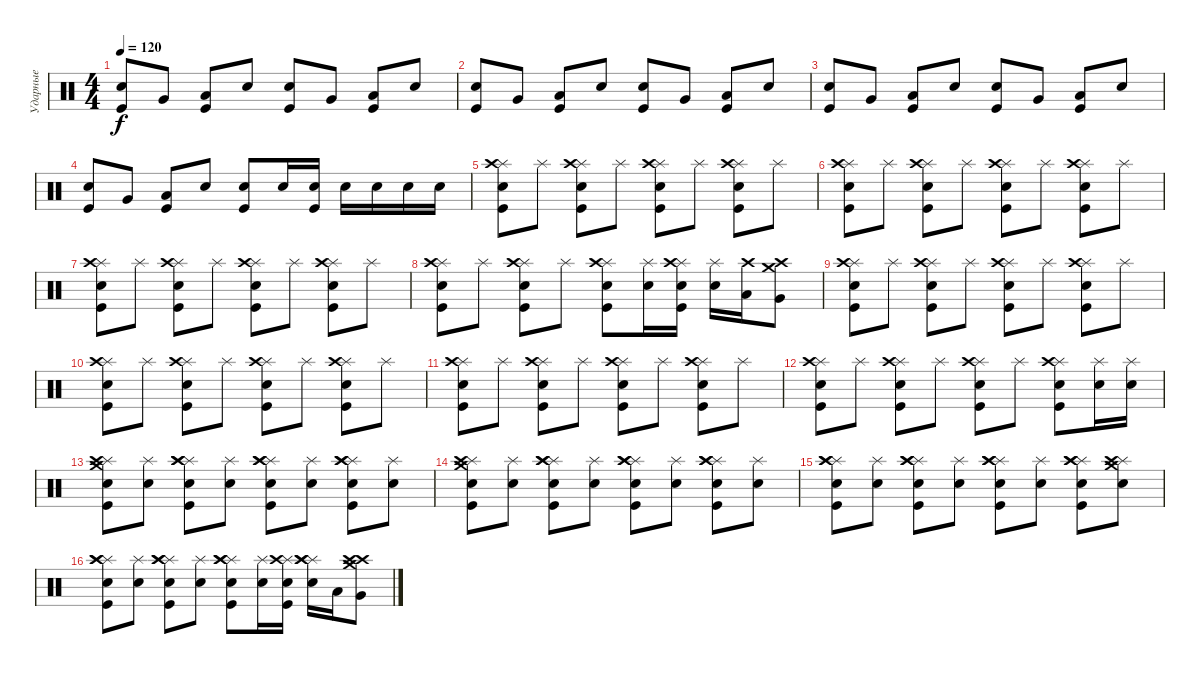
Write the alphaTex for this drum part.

\track ("Ударные" "Ударные") {instrument percussion}
\staff {score}
\articulation defaults
\ts (4 4)
\tempo 120
\clef neutral
\ks c
("Snare (hit) 2" "Kick (hit)").8{dy f} "Very Low Tom (hit)".8 ("Low Floor Tom (hit)" "Kick (hit)").8 "Electric Snare (hit)".8 ("Snare (hit) 2" "Kick (hit)").8 "Very Low Tom (hit)".8 ("Low Floor Tom (hit)" "Kick (hit)").8 "Electric Snare (hit)".8 |
("Snare (hit) 2" "Kick (hit)").8 "Very Low Tom (hit)".8 ("Low Floor Tom (hit)" "Kick (hit)").8 "Electric Snare (hit)".8 ("Snare (hit) 2" "Kick (hit)").8 "Very Low Tom (hit)".8 ("Low Floor Tom (hit)" "Kick (hit)").8 "Electric Snare (hit)".8 |
("Snare (hit) 2" "Kick (hit)").8 "Very Low Tom (hit)".8 ("Low Floor Tom (hit)" "Kick (hit)").8 "Electric Snare (hit)".8 ("Snare (hit) 2" "Kick (hit)").8 "Very Low Tom (hit)".8 ("Low Floor Tom (hit)" "Kick (hit)").8 "Electric Snare (hit)".8 |
("Snare (hit) 2" "Kick (hit)").8 "Very Low Tom (hit)".8 ("Low Floor Tom (hit)" "Kick (hit)").8 "Electric Snare (hit)".8 ("Snare (hit) 2" "Kick (hit)").8 "Snare (hit) 2".16 ("Snare (hit) 2" "Kick (hit)").16 "Snare (hit) 2".16 "Electric Snare (hit)".16 "Electric Snare (hit)".16 "Snare (hit) 2".16 |
("Splash (hit)" "Crash high (hit)" "Electric Snare (hit)" "Kick (hit)").8 "Splash (hit)".8 ("Splash (hit)" "Crash high (hit)" "Electric Snare (hit)" "Kick (hit)").8 "Splash (hit)".8 ("Splash (hit)" "Crash high (hit)" "Electric Snare (hit)" "Kick (hit)").8 "Splash (hit)".8 ("Splash (hit)" "Crash high (hit)" "Electric Snare (hit)" "Kick (hit)").8 "Splash (hit)".8 |
("Splash (hit)" "Crash high (hit)" "Electric Snare (hit)" "Kick (hit)").8 "Splash (hit)".8 ("Splash (hit)" "Crash high (hit)" "Electric Snare (hit)" "Kick (hit)").8 "Splash (hit)".8 ("Splash (hit)" "Crash high (hit)" "Electric Snare (hit)" "Kick (hit)").8 "Splash (hit)".8 ("Splash (hit)" "Crash high (hit)" "Electric Snare (hit)" "Kick (hit)").8 "Splash (hit)".8 |
("Splash (hit)" "Crash high (hit)" "Electric Snare (hit)" "Kick (hit)").8 "Splash (hit)".8 ("Splash (hit)" "Crash high (hit)" "Electric Snare (hit)" "Kick (hit)").8 "Splash (hit)".8 ("Splash (hit)" "Crash high (hit)" "Electric Snare (hit)" "Kick (hit)").8 "Splash (hit)".8 ("Splash (hit)" "Crash high (hit)" "Electric Snare (hit)" "Kick (hit)").8 "Splash (hit)".8 |
("Splash (hit)" "Crash high (hit)" "Electric Snare (hit)" "Kick (hit)").8 "Splash (hit)".8 ("Splash (hit)" "Crash high (hit)" "Electric Snare (hit)" "Kick (hit)").8 "Splash (hit)".8 ("Splash (hit)" "Crash high (hit)" "Electric Snare (hit)" "Kick (hit)").8 ("Splash (hit)" "Snare (hit) 2").16 ("Splash (hit)" "Crash high (hit)" "Electric Snare (hit)" "Kick (hit)").16 ("Splash (hit)" "Electric Snare (hit)").16 ("Crash high (hit)" "Low Floor Tom (hit)").16 ("Crash medium (hit)" "Crash high (hit)" "Very Low Tom (hit)").8 |
("Splash (hit)" "Crash high (hit)" "Electric Snare (hit)" "Kick (hit)").8 "Splash (hit)".8 ("Splash (hit)" "Crash high (hit)" "Electric Snare (hit)" "Kick (hit)").8 "Splash (hit)".8 ("Splash (hit)" "Crash high (hit)" "Electric Snare (hit)" "Kick (hit)").8 "Splash (hit)".8 ("Splash (hit)" "Crash high (hit)" "Electric Snare (hit)" "Kick (hit)").8 "Splash (hit)".8 |
("Splash (hit)" "Crash high (hit)" "Electric Snare (hit)" "Kick (hit)").8 "Splash (hit)".8 ("Splash (hit)" "Crash high (hit)" "Electric Snare (hit)" "Kick (hit)").8 "Splash (hit)".8 ("Splash (hit)" "Crash high (hit)" "Electric Snare (hit)" "Kick (hit)").8 "Splash (hit)".8 ("Splash (hit)" "Crash high (hit)" "Electric Snare (hit)" "Kick (hit)").8 "Splash (hit)".8 |
("Splash (hit)" "Crash high (hit)" "Electric Snare (hit)" "Kick (hit)").8 "Splash (hit)".8 ("Splash (hit)" "Crash high (hit)" "Electric Snare (hit)" "Kick (hit)").8 "Splash (hit)".8 ("Splash (hit)" "Crash high (hit)" "Electric Snare (hit)" "Kick (hit)").8 "Splash (hit)".8 ("Splash (hit)" "Crash high (hit)" "Electric Snare (hit)" "Kick (hit)").8 "Splash (hit)".8 |
("Splash (hit)" "Crash high (hit)" "Electric Snare (hit)" "Kick (hit)").8 "Splash (hit)".8 ("Splash (hit)" "Crash high (hit)" "Electric Snare (hit)" "Kick (hit)").8 "Splash (hit)".8 ("Splash (hit)" "Crash high (hit)" "Electric Snare (hit)" "Kick (hit)").8 "Splash (hit)".8 ("Splash (hit)" "Crash high (hit)" "Electric Snare (hit)" "Kick (hit)").8 ("Splash (hit)" "Snare (hit) 2").16 ("Splash (hit)" "Snare (hit) 2").16 |
("Splash (hit)" "Crash medium (hit)" "Crash high (hit)" "Electric Snare (hit)" "Kick (hit)").8 ("Splash (hit)" "Snare (hit) 2").8 ("Splash (hit)" "Crash high (hit)" "Crash high (hit)" "Electric Snare (hit)" "Kick (hit)").8 ("Splash (hit)" "Snare (hit) 2").8 ("Splash (hit)" "Crash high (hit)" "Crash high (hit)" "Electric Snare (hit)" "Kick (hit)").8 ("Splash (hit)" "Snare (hit) 2").8 ("Splash (hit)" "Crash high (hit)" "Crash high (hit)" "Electric Snare (hit)" "Kick (hit)").8 ("Splash (hit)" "Snare (hit) 2").8 |
("Splash (hit)" "Crash medium (hit)" "Crash high (hit)" "Electric Snare (hit)" "Kick (hit)").8 ("Splash (hit)" "Snare (hit) 2").8 ("Splash (hit)" "Crash high (hit)" "Crash high (hit)" "Electric Snare (hit)" "Kick (hit)").8 ("Splash (hit)" "Snare (hit) 2").8 ("Splash (hit)" "Crash high (hit)" "Crash high (hit)" "Electric Snare (hit)" "Kick (hit)").8 ("Splash (hit)" "Snare (hit) 2").8 ("Splash (hit)" "Crash high (hit)" "Crash high (hit)" "Electric Snare (hit)" "Kick (hit)").8 ("Splash (hit)" "Snare (hit) 2").8 |
("Splash (hit)" "Crash high (hit)" "Crash high (hit)" "Electric Snare (hit)" "Kick (hit)").8 ("Splash (hit)" "Snare (hit) 2").8 ("Splash (hit)" "Crash high (hit)" "Crash high (hit)" "Electric Snare (hit)" "Kick (hit)").8 ("Splash (hit)" "Snare (hit) 2").8 ("Splash (hit)" "Crash high (hit)" "Crash high (hit)" "Electric Snare (hit)" "Kick (hit)").8 ("Splash (hit)" "Snare (hit) 2").8 ("Splash (hit)" "Crash high (hit)" "Crash high (hit)" "Electric Snare (hit)" "Kick (hit)").8 ("Splash (hit)" "Crash medium (hit)" "Crash high (hit)" "Snare (hit) 2").8 |
("Splash (hit)" "Crash high (hit)" "Crash high (hit)" "Electric Snare (hit)" "Kick (hit)").8 ("Splash (hit)" "Snare (hit) 2").8 ("Splash (hit)" "Crash high (hit)" "Crash high (hit)" "Electric Snare (hit)" "Kick (hit)").8 ("Splash (hit)" "Snare (hit) 2").8 ("Splash (hit)" "Crash high (hit)" "Crash high (hit)" "Electric Snare (hit)" "Kick (hit)").8 ("Splash (hit)" "Snare (hit) 2").16 ("Splash (hit)" "Crash high (hit)" "Electric Snare (hit)" "Kick (hit)").16 ("Splash (hit)" "Crash high (hit)" "Crash high (hit)" "Electric Snare (hit)").16 "Low Floor Tom (hit)".16 ("Crash medium (hit)" "Crash high (hit)" "Crash high (hit)" "Very Low Tom (hit)").8
